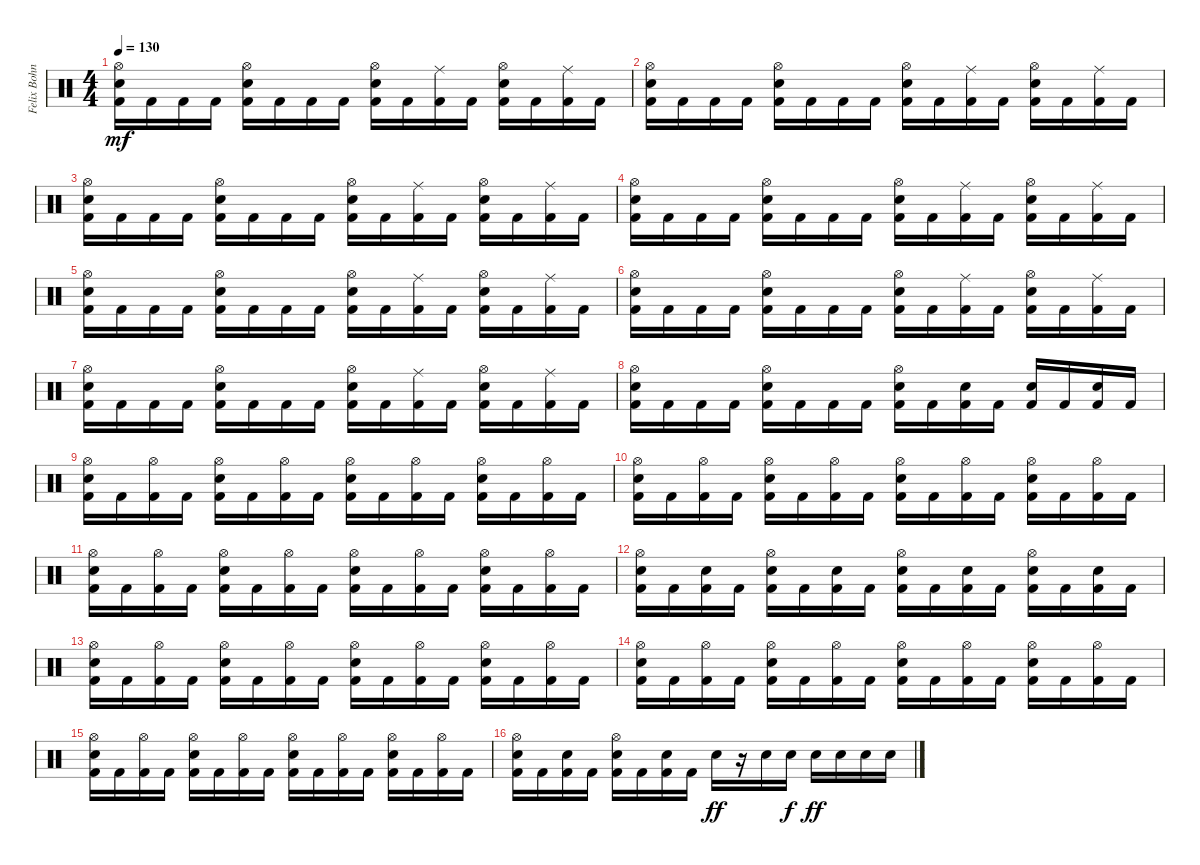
\track ("Felix Bohnke" "Felix Bohn") {instrument percussion}
\staff {score}
\articulation defaults
\ts (4 4)
\tempo 130
\clef neutral
\ks c
("Hi-Hat (open)" "Electric Snare (hit)" "Kick (hit) 2").16{dy mf} "Kick (hit) 2".16 "Kick (hit) 2".16 "Kick (hit) 2".16 ("Hi-Hat (open)" "Electric Snare (hit)" "Kick (hit) 2").16 "Kick (hit) 2".16 "Kick (hit) 2".16 "Kick (hit) 2".16 ("Hi-Hat (open)" "Electric Snare (hit)" "Kick (hit) 2").16 "Kick (hit) 2".16 ("Ride (middle)" "Kick (hit) 2").16 "Kick (hit) 2".16 ("Hi-Hat (open)" "Electric Snare (hit)" "Kick (hit) 2").16 "Kick (hit) 2".16 ("Ride (middle)" "Kick (hit) 2").16 "Kick (hit) 2".16 |
("Hi-Hat (open)" "Electric Snare (hit)" "Kick (hit) 2").16 "Kick (hit) 2".16 "Kick (hit) 2".16 "Kick (hit) 2".16 ("Hi-Hat (open)" "Electric Snare (hit)" "Kick (hit) 2").16 "Kick (hit) 2".16 "Kick (hit) 2".16 "Kick (hit) 2".16 ("Hi-Hat (open)" "Electric Snare (hit)" "Kick (hit) 2").16 "Kick (hit) 2".16 ("Ride (middle)" "Kick (hit) 2").16 "Kick (hit) 2".16 ("Hi-Hat (open)" "Electric Snare (hit)" "Kick (hit) 2").16 "Kick (hit) 2".16 ("Ride (middle)" "Kick (hit) 2").16 "Kick (hit) 2".16 |
("Hi-Hat (open)" "Electric Snare (hit)" "Kick (hit) 2").16 "Kick (hit) 2".16 "Kick (hit) 2".16 "Kick (hit) 2".16 ("Hi-Hat (open)" "Electric Snare (hit)" "Kick (hit) 2").16 "Kick (hit) 2".16 "Kick (hit) 2".16 "Kick (hit) 2".16 ("Hi-Hat (open)" "Electric Snare (hit)" "Kick (hit) 2").16 "Kick (hit) 2".16 ("Ride (middle)" "Kick (hit) 2").16 "Kick (hit) 2".16 ("Hi-Hat (open)" "Electric Snare (hit)" "Kick (hit) 2").16 "Kick (hit) 2".16 ("Ride (middle)" "Kick (hit) 2").16 "Kick (hit) 2".16 |
("Hi-Hat (open)" "Electric Snare (hit)" "Kick (hit) 2").16 "Kick (hit) 2".16 "Kick (hit) 2".16 "Kick (hit) 2".16 ("Hi-Hat (open)" "Electric Snare (hit)" "Kick (hit) 2").16 "Kick (hit) 2".16 "Kick (hit) 2".16 "Kick (hit) 2".16 ("Hi-Hat (open)" "Electric Snare (hit)" "Kick (hit) 2").16 "Kick (hit) 2".16 ("Ride (middle)" "Kick (hit) 2").16 "Kick (hit) 2".16 ("Hi-Hat (open)" "Electric Snare (hit)" "Kick (hit) 2").16 "Kick (hit) 2".16 ("Ride (middle)" "Kick (hit) 2").16 "Kick (hit) 2".16 |
("Hi-Hat (open)" "Electric Snare (hit)" "Kick (hit) 2").16 "Kick (hit) 2".16 "Kick (hit) 2".16 "Kick (hit) 2".16 ("Hi-Hat (open)" "Electric Snare (hit)" "Kick (hit) 2").16 "Kick (hit) 2".16 "Kick (hit) 2".16 "Kick (hit) 2".16 ("Hi-Hat (open)" "Electric Snare (hit)" "Kick (hit) 2").16 "Kick (hit) 2".16 ("Ride (middle)" "Kick (hit) 2").16 "Kick (hit) 2".16 ("Hi-Hat (open)" "Electric Snare (hit)" "Kick (hit) 2").16 "Kick (hit) 2".16 ("Ride (middle)" "Kick (hit) 2").16 "Kick (hit) 2".16 |
("Hi-Hat (open)" "Electric Snare (hit)" "Kick (hit) 2").16 "Kick (hit) 2".16 "Kick (hit) 2".16 "Kick (hit) 2".16 ("Hi-Hat (open)" "Electric Snare (hit)" "Kick (hit) 2").16 "Kick (hit) 2".16 "Kick (hit) 2".16 "Kick (hit) 2".16 ("Hi-Hat (open)" "Electric Snare (hit)" "Kick (hit) 2").16 "Kick (hit) 2".16 ("Ride (middle)" "Kick (hit) 2").16 "Kick (hit) 2".16 ("Hi-Hat (open)" "Electric Snare (hit)" "Kick (hit) 2").16 "Kick (hit) 2".16 ("Ride (middle)" "Kick (hit) 2").16 "Kick (hit) 2".16 |
("Hi-Hat (open)" "Electric Snare (hit)" "Kick (hit) 2").16 "Kick (hit) 2".16 "Kick (hit) 2".16 "Kick (hit) 2".16 ("Hi-Hat (open)" "Electric Snare (hit)" "Kick (hit) 2").16 "Kick (hit) 2".16 "Kick (hit) 2".16 "Kick (hit) 2".16 ("Hi-Hat (open)" "Electric Snare (hit)" "Kick (hit) 2").16 "Kick (hit) 2".16 ("Ride (middle)" "Kick (hit) 2").16 "Kick (hit) 2".16 ("Hi-Hat (open)" "Electric Snare (hit)" "Kick (hit) 2").16 "Kick (hit) 2".16 ("Ride (middle)" "Kick (hit) 2").16 "Kick (hit) 2".16 |
("Hi-Hat (open)" "Electric Snare (hit)" "Kick (hit) 2").16 "Kick (hit) 2".16 "Kick (hit) 2".16 "Kick (hit) 2".16 ("Hi-Hat (open)" "Electric Snare (hit)" "Kick (hit) 2").16 "Kick (hit) 2".16 "Kick (hit) 2".16 "Kick (hit) 2".16 ("Hi-Hat (open)" "Electric Snare (hit)" "Kick (hit) 2").16 "Kick (hit) 2".16 ("Electric Snare (hit)" "Kick (hit) 2").16 "Kick (hit) 2".16 ("Electric Snare (hit)" "Kick (hit) 2").16 "Kick (hit) 2".16 ("Electric Snare (hit)" "Kick (hit) 2").16 "Kick (hit) 2".16 |
("Hi-Hat (open)" "Electric Snare (hit)" "Kick (hit) 2").16 "Kick (hit) 2".16 ("Hi-Hat (open)" "Kick (hit) 2").16 "Kick (hit) 2".16 ("Hi-Hat (open)" "Electric Snare (hit)" "Kick (hit) 2").16 "Kick (hit) 2".16 ("Hi-Hat (open)" "Kick (hit) 2").16 "Kick (hit) 2".16 ("Hi-Hat (open)" "Electric Snare (hit)" "Kick (hit) 2").16 "Kick (hit) 2".16 ("Hi-Hat (open)" "Kick (hit) 2").16 "Kick (hit) 2".16 ("Hi-Hat (open)" "Electric Snare (hit)" "Kick (hit) 2").16 "Kick (hit) 2".16 ("Hi-Hat (open)" "Kick (hit) 2").16 "Kick (hit) 2".16 |
("Hi-Hat (open)" "Electric Snare (hit)" "Kick (hit) 2").16 "Kick (hit) 2".16 ("Hi-Hat (open)" "Kick (hit) 2").16 "Kick (hit) 2".16 ("Hi-Hat (open)" "Electric Snare (hit)" "Kick (hit) 2").16 "Kick (hit) 2".16 ("Hi-Hat (open)" "Kick (hit) 2").16 "Kick (hit) 2".16 ("Hi-Hat (open)" "Electric Snare (hit)" "Kick (hit) 2").16 "Kick (hit) 2".16 ("Hi-Hat (open)" "Kick (hit) 2").16 "Kick (hit) 2".16 ("Hi-Hat (open)" "Electric Snare (hit)" "Kick (hit) 2").16 "Kick (hit) 2".16 ("Hi-Hat (open)" "Kick (hit) 2").16 "Kick (hit) 2".16 |
("Hi-Hat (open)" "Electric Snare (hit)" "Kick (hit) 2").16 "Kick (hit) 2".16 ("Hi-Hat (open)" "Kick (hit) 2").16 "Kick (hit) 2".16 ("Hi-Hat (open)" "Electric Snare (hit)" "Kick (hit) 2").16 "Kick (hit) 2".16 ("Hi-Hat (open)" "Kick (hit) 2").16 "Kick (hit) 2".16 ("Hi-Hat (open)" "Electric Snare (hit)" "Kick (hit) 2").16 "Kick (hit) 2".16 ("Hi-Hat (open)" "Kick (hit) 2").16 "Kick (hit) 2".16 ("Hi-Hat (open)" "Electric Snare (hit)" "Kick (hit) 2").16 "Kick (hit) 2".16 ("Hi-Hat (open)" "Kick (hit) 2").16 "Kick (hit) 2".16 |
("Hi-Hat (open)" "Electric Snare (hit)" "Kick (hit) 2").16 "Kick (hit) 2".16 ("Electric Snare (hit)" "Kick (hit) 2").16 "Kick (hit) 2".16 ("Hi-Hat (open)" "Electric Snare (hit)" "Kick (hit) 2").16 "Kick (hit) 2".16 ("Electric Snare (hit)" "Kick (hit) 2").16 "Kick (hit) 2".16 ("Hi-Hat (open)" "Electric Snare (hit)" "Kick (hit) 2").16 "Kick (hit) 2".16 ("Electric Snare (hit)" "Kick (hit) 2").16 "Kick (hit) 2".16 ("Hi-Hat (open)" "Electric Snare (hit)" "Kick (hit) 2").16 "Kick (hit) 2".16 ("Electric Snare (hit)" "Kick (hit) 2").16 "Kick (hit) 2".16 |
("Hi-Hat (open)" "Electric Snare (hit)" "Kick (hit) 2").16 "Kick (hit) 2".16 ("Hi-Hat (open)" "Kick (hit) 2").16 "Kick (hit) 2".16 ("Hi-Hat (open)" "Electric Snare (hit)" "Kick (hit) 2").16 "Kick (hit) 2".16 ("Hi-Hat (open)" "Kick (hit) 2").16 "Kick (hit) 2".16 ("Hi-Hat (open)" "Electric Snare (hit)" "Kick (hit) 2").16 "Kick (hit) 2".16 ("Hi-Hat (open)" "Kick (hit) 2").16 "Kick (hit) 2".16 ("Hi-Hat (open)" "Electric Snare (hit)" "Kick (hit) 2").16 "Kick (hit) 2".16 ("Hi-Hat (open)" "Kick (hit) 2").16 "Kick (hit) 2".16 |
("Hi-Hat (open)" "Electric Snare (hit)" "Kick (hit) 2").16 "Kick (hit) 2".16 ("Hi-Hat (open)" "Kick (hit) 2").16 "Kick (hit) 2".16 ("Hi-Hat (open)" "Electric Snare (hit)" "Kick (hit) 2").16 "Kick (hit) 2".16 ("Hi-Hat (open)" "Kick (hit) 2").16 "Kick (hit) 2".16 ("Hi-Hat (open)" "Electric Snare (hit)" "Kick (hit) 2").16 "Kick (hit) 2".16 ("Hi-Hat (open)" "Kick (hit) 2").16 "Kick (hit) 2".16 ("Hi-Hat (open)" "Electric Snare (hit)" "Kick (hit) 2").16 "Kick (hit) 2".16 ("Hi-Hat (open)" "Kick (hit) 2").16 "Kick (hit) 2".16 |
("Hi-Hat (open)" "Electric Snare (hit)" "Kick (hit) 2").16 "Kick (hit) 2".16 ("Hi-Hat (open)" "Kick (hit) 2").16 "Kick (hit) 2".16 ("Hi-Hat (open)" "Electric Snare (hit)" "Kick (hit) 2").16 "Kick (hit) 2".16 ("Hi-Hat (open)" "Kick (hit) 2").16 "Kick (hit) 2".16 ("Hi-Hat (open)" "Electric Snare (hit)" "Kick (hit) 2").16 "Kick (hit) 2".16 ("Hi-Hat (open)" "Kick (hit) 2").16 "Kick (hit) 2".16 ("Hi-Hat (open)" "Electric Snare (hit)" "Kick (hit) 2").16 "Kick (hit) 2".16 ("Hi-Hat (open)" "Kick (hit) 2").16 "Kick (hit) 2".16 |
("Hi-Hat (open)" "Electric Snare (hit)" "Kick (hit) 2").16 "Kick (hit) 2".16 ("Electric Snare (hit)" "Kick (hit) 2").16 "Kick (hit) 2".16 ("Hi-Hat (open)" "Electric Snare (hit)" "Kick (hit) 2").16 "Kick (hit) 2".16 ("Electric Snare (hit)" "Kick (hit) 2").16 "Kick (hit) 2".16 "Electric Snare (hit)".16{dy ff} r.16 "Electric Snare (hit)".16 "Electric Snare (hit)".16{dy f} "Electric Snare (hit)".16{dy ff} "Electric Snare (hit)".16 "Electric Snare (hit)".16 "Electric Snare (hit)".16
